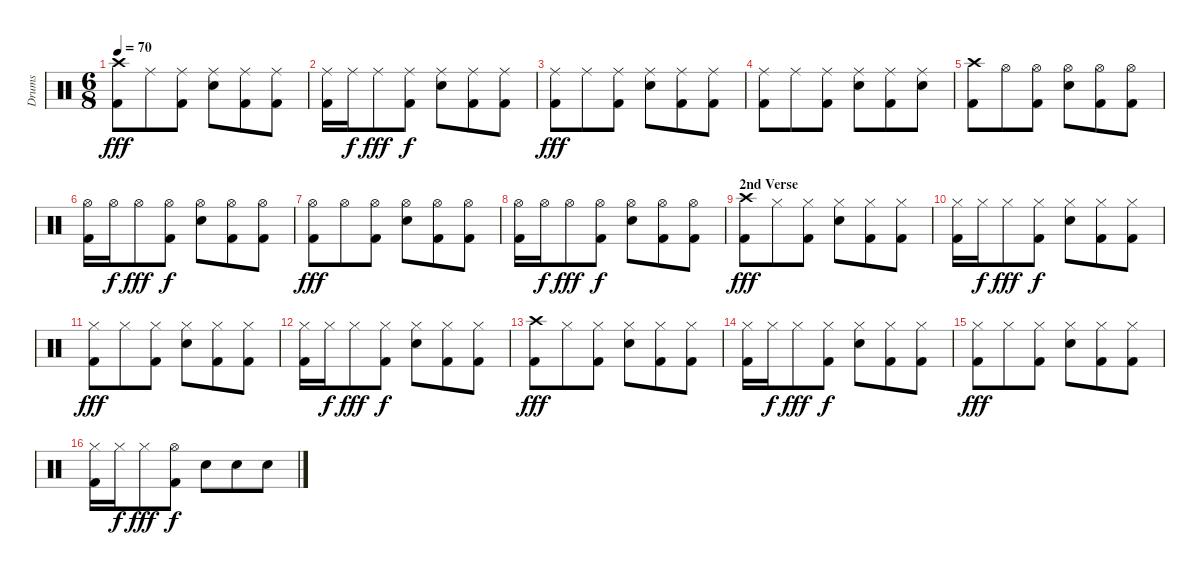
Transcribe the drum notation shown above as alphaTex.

\track ("Drums" "Drums") {instrument percussion}
\staff {score}
\articulation defaults
\ts (6 8)
\tempo 70
\clef neutral
\ks c
("Crash high (hit)" "Kick (hit) 2").8{dy fff} "Ride (middle)".8 ("Ride (middle)" "Kick (hit) 2").8 ("Ride (middle)" "Electric Snare (hit)").8 ("Ride (middle)" "Kick (hit) 2").8 ("Ride (middle)" "Kick (hit) 2").8 |
("Ride (middle)" "Kick (hit) 2").16 "Ride (middle)".16{dy f} "Ride (middle)".8{dy fff} ("Ride (middle)" "Kick (hit) 2").8{dy f} ("Ride (middle)" "Electric Snare (hit)").8 ("Ride (middle)" "Kick (hit) 2").8 ("Ride (middle)" "Kick (hit) 2").8 |
("Ride (middle)" "Kick (hit) 2").8{dy fff} "Ride (middle)".8 ("Ride (middle)" "Kick (hit) 2").8 ("Ride (middle)" "Electric Snare (hit)").8 ("Ride (middle)" "Kick (hit) 2").8 ("Ride (middle)" "Kick (hit) 2").8 |
("Ride (middle)" "Kick (hit) 2").8 "Ride (middle)".8 ("Ride (middle)" "Kick (hit) 2").8 ("Ride (middle)" "Electric Snare (hit)").8 ("Ride (middle)" "Kick (hit) 2").8 ("Ride (middle)" "Electric Snare (hit)").8 |
("Crash high (hit)" "Kick (hit) 2").8 "Hi-Hat (open)".8 ("Hi-Hat (open)" "Kick (hit) 2").8 ("Hi-Hat (open)" "Electric Snare (hit)").8 ("Hi-Hat (open)" "Kick (hit) 2").8 ("Hi-Hat (open)" "Kick (hit) 2").8 |
("Hi-Hat (open)" "Kick (hit) 2").16 "Hi-Hat (open)".16{dy f} "Hi-Hat (open)".8{dy fff} ("Hi-Hat (open)" "Kick (hit) 2").8{dy f} ("Hi-Hat (open)" "Electric Snare (hit)").8 ("Hi-Hat (open)" "Kick (hit) 2").8 ("Hi-Hat (open)" "Kick (hit) 2").8 |
("Hi-Hat (open)" "Kick (hit) 2").8{dy fff} "Hi-Hat (open)".8 ("Hi-Hat (open)" "Kick (hit) 2").8 ("Hi-Hat (open)" "Electric Snare (hit)").8 ("Hi-Hat (open)" "Kick (hit) 2").8 ("Hi-Hat (open)" "Kick (hit) 2").8 |
("Hi-Hat (open)" "Kick (hit) 2").16 "Hi-Hat (open)".16{dy f} "Hi-Hat (open)".8{dy fff} ("Hi-Hat (open)" "Kick (hit) 2").8{dy f} ("Hi-Hat (open)" "Electric Snare (hit)").8 ("Hi-Hat (open)" "Kick (hit) 2").8 ("Hi-Hat (open)" "Kick (hit) 2").8 |
\section ("" "2nd Verse")
("Crash high (hit)" "Kick (hit) 2").8{dy fff} "Hi-Hat (closed)".8 ("Hi-Hat (closed)" "Kick (hit) 2").8 ("Hi-Hat (closed)" "Electric Snare (hit)").8 ("Hi-Hat (closed)" "Kick (hit) 2").8 ("Hi-Hat (closed)" "Kick (hit) 2").8 |
("Hi-Hat (closed)" "Kick (hit) 2").16 "Hi-Hat (closed)".16{dy f} "Hi-Hat (closed)".8{dy fff} ("Hi-Hat (closed)" "Kick (hit) 2").8{dy f} ("Hi-Hat (closed)" "Electric Snare (hit)").8 ("Hi-Hat (closed)" "Kick (hit) 2").8 ("Hi-Hat (closed)" "Kick (hit) 2").8 |
("Hi-Hat (closed)" "Kick (hit) 2").8{dy fff} "Hi-Hat (closed)".8 ("Hi-Hat (closed)" "Kick (hit) 2").8 ("Hi-Hat (closed)" "Electric Snare (hit)").8 ("Hi-Hat (closed)" "Kick (hit) 2").8 ("Hi-Hat (closed)" "Kick (hit) 2").8 |
("Hi-Hat (closed)" "Kick (hit) 2").16 "Hi-Hat (closed)".16{dy f} "Hi-Hat (closed)".8{dy fff} ("Hi-Hat (closed)" "Kick (hit) 2").8{dy f} ("Hi-Hat (closed)" "Electric Snare (hit)").8 ("Hi-Hat (closed)" "Kick (hit) 2").8 ("Hi-Hat (closed)" "Kick (hit) 2").8 |
("Crash high (hit)" "Kick (hit) 2").8{dy fff} "Hi-Hat (closed)".8 ("Hi-Hat (closed)" "Kick (hit) 2").8 ("Hi-Hat (closed)" "Electric Snare (hit)").8 ("Hi-Hat (closed)" "Kick (hit) 2").8 ("Hi-Hat (closed)" "Kick (hit) 2").8 |
("Hi-Hat (closed)" "Kick (hit) 2").16 "Hi-Hat (closed)".16{dy f} "Hi-Hat (closed)".8{dy fff} ("Hi-Hat (closed)" "Kick (hit) 2").8{dy f} ("Hi-Hat (closed)" "Electric Snare (hit)").8 ("Hi-Hat (closed)" "Kick (hit) 2").8 ("Hi-Hat (closed)" "Kick (hit) 2").8 |
("Hi-Hat (closed)" "Kick (hit) 2").8{dy fff} "Hi-Hat (closed)".8 ("Hi-Hat (closed)" "Kick (hit) 2").8 ("Hi-Hat (closed)" "Electric Snare (hit)").8 ("Hi-Hat (closed)" "Kick (hit) 2").8 ("Hi-Hat (closed)" "Kick (hit) 2").8 |
("Hi-Hat (closed)" "Kick (hit) 2").16 "Hi-Hat (closed)".16{dy f} "Hi-Hat (closed)".8{dy fff} ("Hi-Hat (open)" "Kick (hit) 2").8{dy f} "Electric Snare (hit)".8 "Electric Snare (hit)".8 "Electric Snare (hit)".8
